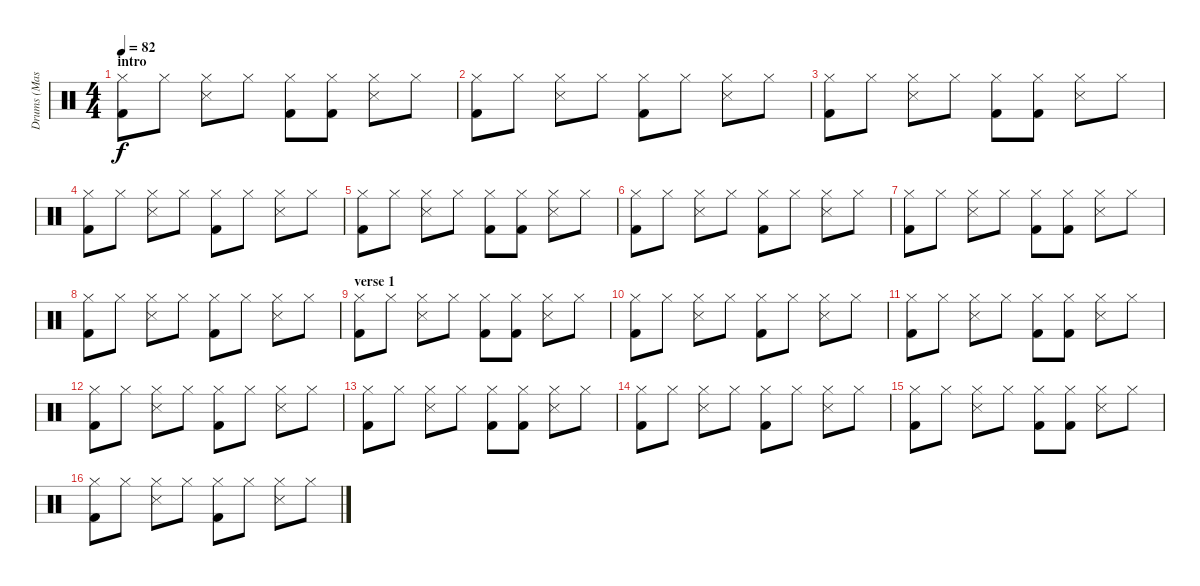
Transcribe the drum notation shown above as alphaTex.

\track ("Drums (Mason)" "Drums (Mas") {instrument percussion}
\staff {score}
\articulation defaults
\ts (4 4)
\section ("" "intro")
\tempo 82
\clef neutral
\ks c
("Hi-Hat (closed)" "Kick (hit) 2").8{dy f} "Hi-Hat (closed)".8 ("Hi-Hat (closed)" "Snare (side stick) 3").8 "Hi-Hat (closed)".8 ("Hi-Hat (closed)" "Kick (hit) 2").8 ("Hi-Hat (closed)" "Kick (hit) 2").8 ("Hi-Hat (closed)" "Snare (side stick) 3").8 "Hi-Hat (closed)".8 |
("Hi-Hat (closed)" "Kick (hit) 2").8 "Hi-Hat (closed)".8 ("Hi-Hat (closed)" "Snare (side stick) 3").8 "Hi-Hat (closed)".8 ("Hi-Hat (closed)" "Kick (hit) 2").8 "Hi-Hat (closed)".8 ("Hi-Hat (closed)" "Snare (side stick) 3").8 "Hi-Hat (closed)".8 |
("Hi-Hat (closed)" "Kick (hit) 2").8 "Hi-Hat (closed)".8 ("Hi-Hat (closed)" "Snare (side stick) 3").8 "Hi-Hat (closed)".8 ("Hi-Hat (closed)" "Kick (hit) 2").8 ("Hi-Hat (closed)" "Kick (hit) 2").8 ("Hi-Hat (closed)" "Snare (side stick) 3").8 "Hi-Hat (closed)".8 |
("Hi-Hat (closed)" "Kick (hit) 2").8 "Hi-Hat (closed)".8 ("Hi-Hat (closed)" "Snare (side stick) 3").8 "Hi-Hat (closed)".8 ("Hi-Hat (closed)" "Kick (hit) 2").8 "Hi-Hat (closed)".8 ("Hi-Hat (closed)" "Snare (side stick) 3").8 "Hi-Hat (closed)".8 |
("Hi-Hat (closed)" "Kick (hit) 2").8 "Hi-Hat (closed)".8 ("Hi-Hat (closed)" "Snare (side stick) 3").8 "Hi-Hat (closed)".8 ("Hi-Hat (closed)" "Kick (hit) 2").8 ("Hi-Hat (closed)" "Kick (hit) 2").8 ("Hi-Hat (closed)" "Snare (side stick) 3").8 "Hi-Hat (closed)".8 |
("Hi-Hat (closed)" "Kick (hit) 2").8 "Hi-Hat (closed)".8 ("Hi-Hat (closed)" "Snare (side stick) 3").8 "Hi-Hat (closed)".8 ("Hi-Hat (closed)" "Kick (hit) 2").8 "Hi-Hat (closed)".8 ("Hi-Hat (closed)" "Snare (side stick) 3").8 "Hi-Hat (closed)".8 |
("Hi-Hat (closed)" "Kick (hit) 2").8 "Hi-Hat (closed)".8 ("Hi-Hat (closed)" "Snare (side stick) 3").8 "Hi-Hat (closed)".8 ("Hi-Hat (closed)" "Kick (hit) 2").8 ("Hi-Hat (closed)" "Kick (hit) 2").8 ("Hi-Hat (closed)" "Snare (side stick) 3").8 "Hi-Hat (closed)".8 |
("Hi-Hat (closed)" "Kick (hit) 2").8 "Hi-Hat (closed)".8 ("Hi-Hat (closed)" "Snare (side stick) 3").8 "Hi-Hat (closed)".8 ("Hi-Hat (closed)" "Kick (hit) 2").8 "Hi-Hat (closed)".8 ("Hi-Hat (closed)" "Snare (side stick) 3").8 "Hi-Hat (closed)".8 |
\section ("" "verse 1")
("Hi-Hat (closed)" "Kick (hit) 2").8 "Hi-Hat (closed)".8 ("Hi-Hat (closed)" "Snare (side stick) 3").8 "Hi-Hat (closed)".8 ("Hi-Hat (closed)" "Kick (hit) 2").8 ("Hi-Hat (closed)" "Kick (hit) 2").8 ("Hi-Hat (closed)" "Snare (side stick) 3").8 "Hi-Hat (closed)".8 |
("Hi-Hat (closed)" "Kick (hit) 2").8 "Hi-Hat (closed)".8 ("Hi-Hat (closed)" "Snare (side stick) 3").8 "Hi-Hat (closed)".8 ("Hi-Hat (closed)" "Kick (hit) 2").8 "Hi-Hat (closed)".8 ("Hi-Hat (closed)" "Snare (side stick) 3").8 "Hi-Hat (closed)".8 |
("Hi-Hat (closed)" "Kick (hit) 2").8 "Hi-Hat (closed)".8 ("Hi-Hat (closed)" "Snare (side stick) 3").8 "Hi-Hat (closed)".8 ("Hi-Hat (closed)" "Kick (hit) 2").8 ("Hi-Hat (closed)" "Kick (hit) 2").8 ("Hi-Hat (closed)" "Snare (side stick) 3").8 "Hi-Hat (closed)".8 |
("Hi-Hat (closed)" "Kick (hit) 2").8 "Hi-Hat (closed)".8 ("Hi-Hat (closed)" "Snare (side stick) 3").8 "Hi-Hat (closed)".8 ("Hi-Hat (closed)" "Kick (hit) 2").8 "Hi-Hat (closed)".8 ("Hi-Hat (closed)" "Snare (side stick) 3").8 "Hi-Hat (closed)".8 |
("Hi-Hat (closed)" "Kick (hit) 2").8 "Hi-Hat (closed)".8 ("Hi-Hat (closed)" "Snare (side stick) 3").8 "Hi-Hat (closed)".8 ("Hi-Hat (closed)" "Kick (hit) 2").8 ("Hi-Hat (closed)" "Kick (hit) 2").8 ("Hi-Hat (closed)" "Snare (side stick) 3").8 "Hi-Hat (closed)".8 |
("Hi-Hat (closed)" "Kick (hit) 2").8 "Hi-Hat (closed)".8 ("Hi-Hat (closed)" "Snare (side stick) 3").8 "Hi-Hat (closed)".8 ("Hi-Hat (closed)" "Kick (hit) 2").8 "Hi-Hat (closed)".8 ("Hi-Hat (closed)" "Snare (side stick) 3").8 "Hi-Hat (closed)".8 |
("Hi-Hat (closed)" "Kick (hit) 2").8 "Hi-Hat (closed)".8 ("Hi-Hat (closed)" "Snare (side stick) 3").8 "Hi-Hat (closed)".8 ("Hi-Hat (closed)" "Kick (hit) 2").8 ("Hi-Hat (closed)" "Kick (hit) 2").8 ("Hi-Hat (closed)" "Snare (side stick) 3").8 "Hi-Hat (closed)".8 |
("Hi-Hat (closed)" "Kick (hit) 2").8 "Hi-Hat (closed)".8 ("Hi-Hat (closed)" "Snare (side stick) 3").8 "Hi-Hat (closed)".8 ("Hi-Hat (closed)" "Kick (hit) 2").8 "Hi-Hat (closed)".8 ("Hi-Hat (closed)" "Snare (side stick) 3").8 "Hi-Hat (closed)".8
